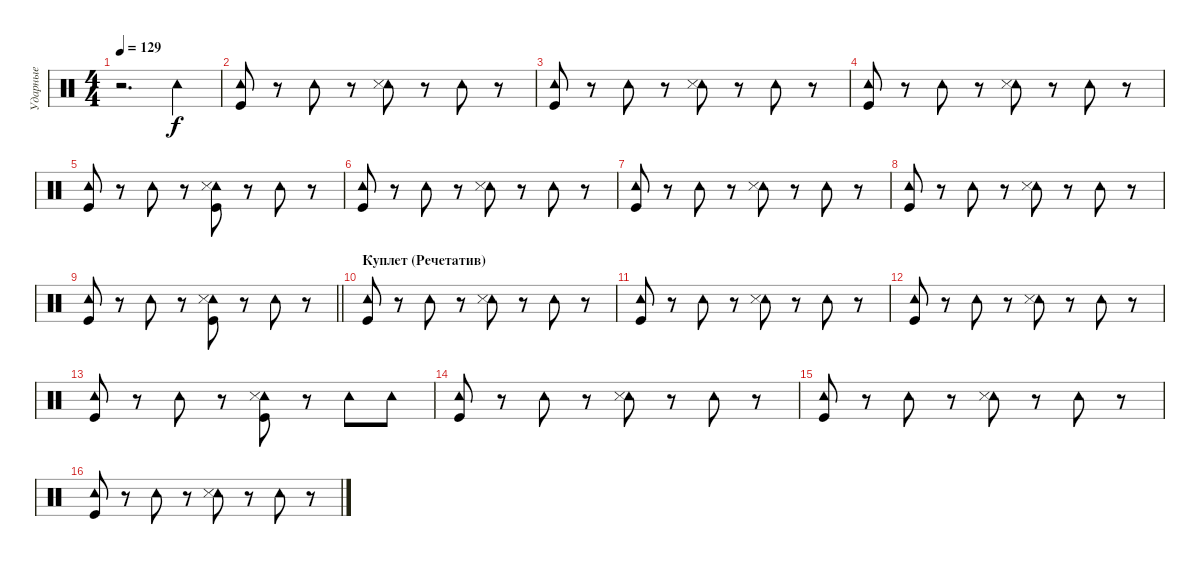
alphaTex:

\track ("Ударные" "Ударные") {instrument percussion}
\staff {score}
\articulation defaults
\ts (4 4)
\tempo 129
\clef neutral
\ks c
r.2{d dy f} "Tambourine (hit)".4 |
("Tambourine (hit)" "Kick (hit)").8 r.8 "Tambourine (hit)".8 r.8 ("Tambourine (hit)" "Snare (side stick) 3").8 r.8 "Tambourine (hit)".8 r.8 |
("Tambourine (hit)" "Kick (hit)").8 r.8 "Tambourine (hit)".8 r.8 ("Tambourine (hit)" "Snare (side stick) 3").8 r.8 "Tambourine (hit)".8 r.8 |
("Tambourine (hit)" "Kick (hit)").8 r.8 "Tambourine (hit)".8 r.8 ("Tambourine (hit)" "Snare (side stick) 3").8 r.8 "Tambourine (hit)".8 r.8 |
("Tambourine (hit)" "Kick (hit)").8 r.8 "Tambourine (hit)".8 r.8 ("Tambourine (hit)" "Snare (side stick) 3" "Kick (hit)").8 r.8 "Tambourine (hit)".8 r.8 |
("Tambourine (hit)" "Kick (hit)").8 r.8 "Tambourine (hit)".8 r.8 ("Tambourine (hit)" "Snare (side stick) 3").8 r.8 "Tambourine (hit)".8 r.8 |
("Tambourine (hit)" "Kick (hit)").8 r.8 "Tambourine (hit)".8 r.8 ("Tambourine (hit)" "Snare (side stick) 3").8 r.8 "Tambourine (hit)".8 r.8 |
("Tambourine (hit)" "Kick (hit)").8 r.8 "Tambourine (hit)".8 r.8 ("Tambourine (hit)" "Snare (side stick) 3").8 r.8 "Tambourine (hit)".8 r.8 |
\barLineRight lightlight
("Tambourine (hit)" "Kick (hit)").8 r.8 "Tambourine (hit)".8 r.8 ("Tambourine (hit)" "Snare (side stick) 3" "Kick (hit)").8 r.8 "Tambourine (hit)".8 r.8 |
\section ("" "Куплет (Речетатив)")
("Tambourine (hit)" "Kick (hit)").8 r.8 "Tambourine (hit)".8 r.8 ("Tambourine (hit)" "Snare (side stick) 3").8 r.8 "Tambourine (hit)".8 r.8 |
("Tambourine (hit)" "Kick (hit)").8 r.8 "Tambourine (hit)".8 r.8 ("Tambourine (hit)" "Snare (side stick) 3").8 r.8 "Tambourine (hit)".8 r.8 |
("Tambourine (hit)" "Kick (hit)").8 r.8 "Tambourine (hit)".8 r.8 ("Tambourine (hit)" "Snare (side stick) 3").8 r.8 "Tambourine (hit)".8 r.8 |
("Tambourine (hit)" "Kick (hit)").8 r.8 "Tambourine (hit)".8 r.8 ("Tambourine (hit)" "Snare (side stick) 3" "Kick (hit)").8 r.8 "Tambourine (hit)".8 "Tambourine (hit)".8 |
("Tambourine (hit)" "Kick (hit)").8 r.8 "Tambourine (hit)".8 r.8 ("Tambourine (hit)" "Snare (side stick) 3").8 r.8 "Tambourine (hit)".8 r.8 |
("Tambourine (hit)" "Kick (hit)").8 r.8 "Tambourine (hit)".8 r.8 ("Tambourine (hit)" "Snare (side stick) 3").8 r.8 "Tambourine (hit)".8 r.8 |
("Tambourine (hit)" "Kick (hit)").8 r.8 "Tambourine (hit)".8 r.8 ("Tambourine (hit)" "Snare (side stick) 3").8 r.8 "Tambourine (hit)".8 r.8
